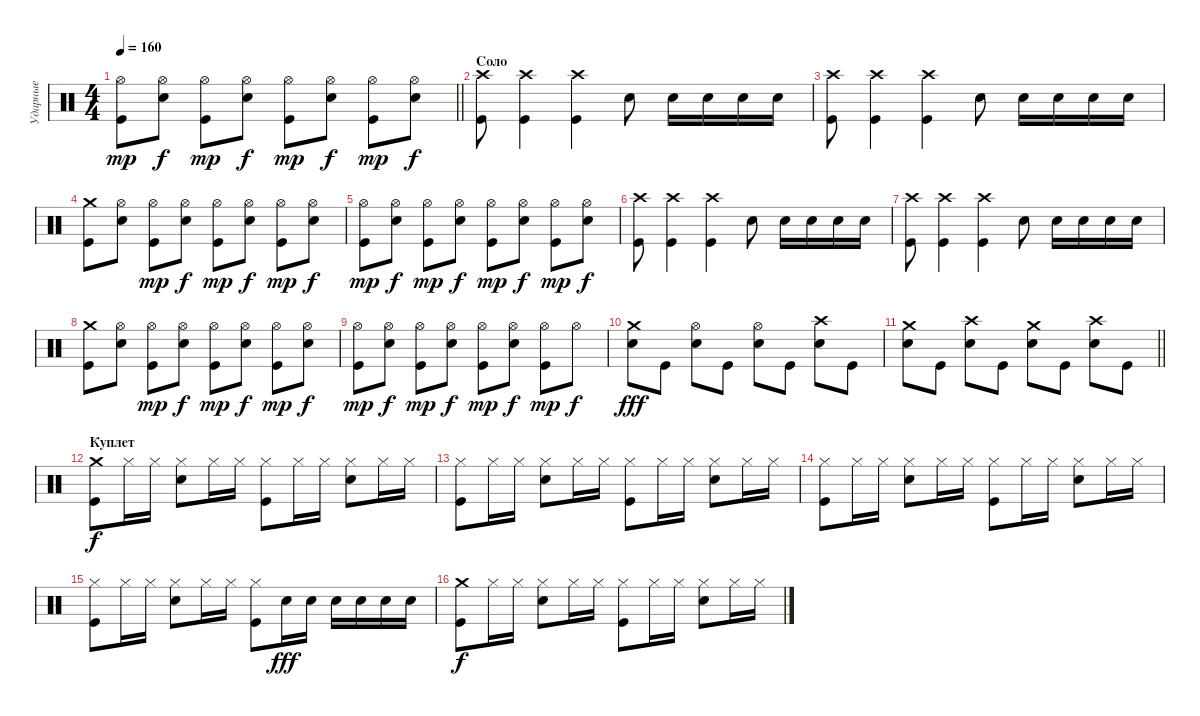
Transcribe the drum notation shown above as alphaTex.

\track ("Ударные" "Ударные") {instrument percussion}
\staff {score}
\articulation defaults
\ts (4 4)
\tempo 160
\clef neutral
\barLineRight lightlight
\ks c
("Hi-Hat (open)" "Kick (hit)").8{dy mp} ("Hi-Hat (open)" "Electric Snare (hit)").8{dy f} ("Hi-Hat (open)" "Kick (hit)").8{dy mp} ("Hi-Hat (open)" "Electric Snare (hit)").8{dy f} ("Hi-Hat (open)" "Kick (hit)").8{dy mp} ("Hi-Hat (open)" "Electric Snare (hit)").8{dy f} ("Hi-Hat (open)" "Kick (hit)").8{dy mp} ("Hi-Hat (open)" "Electric Snare (hit)").8{dy f} |
\section ("" "Соло")
("Crash high (hit)" "Kick (hit)").8 ("Crash high (hit)" "Kick (hit)").4 ("Crash high (hit)" "Kick (hit)").4 "Electric Snare (hit)".8 "Electric Snare (hit)".16 "Electric Snare (hit)".16 "Electric Snare (hit)".16 "Electric Snare (hit)".16 |
("Crash high (hit)" "Kick (hit)").8 ("Crash high (hit)" "Kick (hit)").4 ("Crash high (hit)" "Kick (hit)").4 "Electric Snare (hit)".8 "Electric Snare (hit)".16 "Electric Snare (hit)".16 "Electric Snare (hit)".16 "Electric Snare (hit)".16 |
("Crash medium (hit)" "Kick (hit)").8 ("Hi-Hat (open)" "Electric Snare (hit)").8 ("Hi-Hat (open)" "Kick (hit)").8{dy mp} ("Hi-Hat (open)" "Electric Snare (hit)").8{dy f} ("Hi-Hat (open)" "Kick (hit)").8{dy mp} ("Hi-Hat (open)" "Electric Snare (hit)").8{dy f} ("Hi-Hat (open)" "Kick (hit)").8{dy mp} ("Hi-Hat (open)" "Electric Snare (hit)").8{dy f} |
("Hi-Hat (open)" "Kick (hit)").8{dy mp} ("Hi-Hat (open)" "Electric Snare (hit)").8{dy f} ("Hi-Hat (open)" "Kick (hit)").8{dy mp} ("Hi-Hat (open)" "Electric Snare (hit)").8{dy f} ("Hi-Hat (open)" "Kick (hit)").8{dy mp} ("Hi-Hat (open)" "Electric Snare (hit)").8{dy f} ("Hi-Hat (open)" "Kick (hit)").8{dy mp} ("Hi-Hat (open)" "Electric Snare (hit)").8{dy f} |
("Crash high (hit)" "Kick (hit)").8 ("Crash high (hit)" "Kick (hit)").4 ("Crash high (hit)" "Kick (hit)").4 "Electric Snare (hit)".8 "Electric Snare (hit)".16 "Electric Snare (hit)".16 "Electric Snare (hit)".16 "Electric Snare (hit)".16 |
("Crash high (hit)" "Kick (hit)").8 ("Crash high (hit)" "Kick (hit)").4 ("Crash high (hit)" "Kick (hit)").4 "Electric Snare (hit)".8 "Electric Snare (hit)".16 "Electric Snare (hit)".16 "Electric Snare (hit)".16 "Electric Snare (hit)".16 |
("Crash medium (hit)" "Kick (hit)").8 ("Hi-Hat (open)" "Electric Snare (hit)").8 ("Hi-Hat (open)" "Kick (hit)").8{dy mp} ("Hi-Hat (open)" "Electric Snare (hit)").8{dy f} ("Hi-Hat (open)" "Kick (hit)").8{dy mp} ("Hi-Hat (open)" "Electric Snare (hit)").8{dy f} ("Hi-Hat (open)" "Kick (hit)").8{dy mp} ("Hi-Hat (open)" "Electric Snare (hit)").8{dy f} |
("Hi-Hat (open)" "Kick (hit)").8{dy mp} ("Hi-Hat (open)" "Electric Snare (hit)").8{dy f} ("Hi-Hat (open)" "Kick (hit)").8{dy mp} ("Hi-Hat (open)" "Electric Snare (hit)").8{dy f} ("Hi-Hat (open)" "Kick (hit)").8{dy mp} ("Hi-Hat (open)" "Electric Snare (hit)").8{dy f} ("Hi-Hat (open)" "Kick (hit)").8{dy mp} "Hi-Hat (open)".8{dy f} |
("Crash medium (hit)" "Electric Snare (hit)").8{dy fff} "Kick (hit)".8 ("Hi-Hat (open)" "Electric Snare (hit)").8 "Kick (hit)".8 ("Hi-Hat (open)" "Electric Snare (hit)").8 "Kick (hit)".8 ("Crash high (hit)" "Electric Snare (hit)").8 "Kick (hit)".8 |
\barLineRight lightlight
("Crash medium (hit)" "Electric Snare (hit)").8 "Kick (hit)".8 ("Crash high (hit)" "Electric Snare (hit)").8 "Kick (hit)".8 ("Crash medium (hit)" "Electric Snare (hit)").8 "Kick (hit)".8 ("Crash high (hit)" "Electric Snare (hit)").8 "Kick (hit)".8 |
\section ("" "Куплет")
("Crash medium (hit)" "Kick (hit)").8{dy f} "Hi-Hat (closed)".16 "Hi-Hat (closed)".16 ("Hi-Hat (closed)" "Electric Snare (hit)").8 "Hi-Hat (closed)".16 "Hi-Hat (closed)".16 ("Hi-Hat (closed)" "Kick (hit)").8 "Hi-Hat (closed)".16 "Hi-Hat (closed)".16 ("Hi-Hat (closed)" "Electric Snare (hit)").8 "Hi-Hat (closed)".16 "Hi-Hat (closed)".16 |
("Hi-Hat (closed)" "Kick (hit)").8 "Hi-Hat (closed)".16 "Hi-Hat (closed)".16 ("Hi-Hat (closed)" "Electric Snare (hit)").8 "Hi-Hat (closed)".16 "Hi-Hat (closed)".16 ("Hi-Hat (closed)" "Kick (hit)").8 "Hi-Hat (closed)".16 "Hi-Hat (closed)".16 ("Hi-Hat (closed)" "Electric Snare (hit)").8 "Hi-Hat (closed)".16 "Hi-Hat (closed)".16 |
("Hi-Hat (closed)" "Kick (hit)").8 "Hi-Hat (closed)".16 "Hi-Hat (closed)".16 ("Hi-Hat (closed)" "Electric Snare (hit)").8 "Hi-Hat (closed)".16 "Hi-Hat (closed)".16 ("Hi-Hat (closed)" "Kick (hit)").8 "Hi-Hat (closed)".16 "Hi-Hat (closed)".16 ("Hi-Hat (closed)" "Electric Snare (hit)").8 "Hi-Hat (closed)".16 "Hi-Hat (closed)".16 |
("Hi-Hat (closed)" "Kick (hit)").8 "Hi-Hat (closed)".16 "Hi-Hat (closed)".16 ("Hi-Hat (closed)" "Electric Snare (hit)").8 "Hi-Hat (closed)".16 "Hi-Hat (closed)".16 ("Hi-Hat (closed)" "Kick (hit)").8 "Electric Snare (hit)".16{dy fff} "Electric Snare (hit)".16 "Electric Snare (hit)".16 "Electric Snare (hit)".16 "Electric Snare (hit)".16 "Electric Snare (hit)".16 |
("Crash medium (hit)" "Kick (hit)").8{dy f} "Hi-Hat (closed)".16 "Hi-Hat (closed)".16 ("Hi-Hat (closed)" "Electric Snare (hit)").8 "Hi-Hat (closed)".16 "Hi-Hat (closed)".16 ("Hi-Hat (closed)" "Kick (hit)").8 "Hi-Hat (closed)".16 "Hi-Hat (closed)".16 ("Hi-Hat (closed)" "Electric Snare (hit)").8 "Hi-Hat (closed)".16 "Hi-Hat (closed)".16
